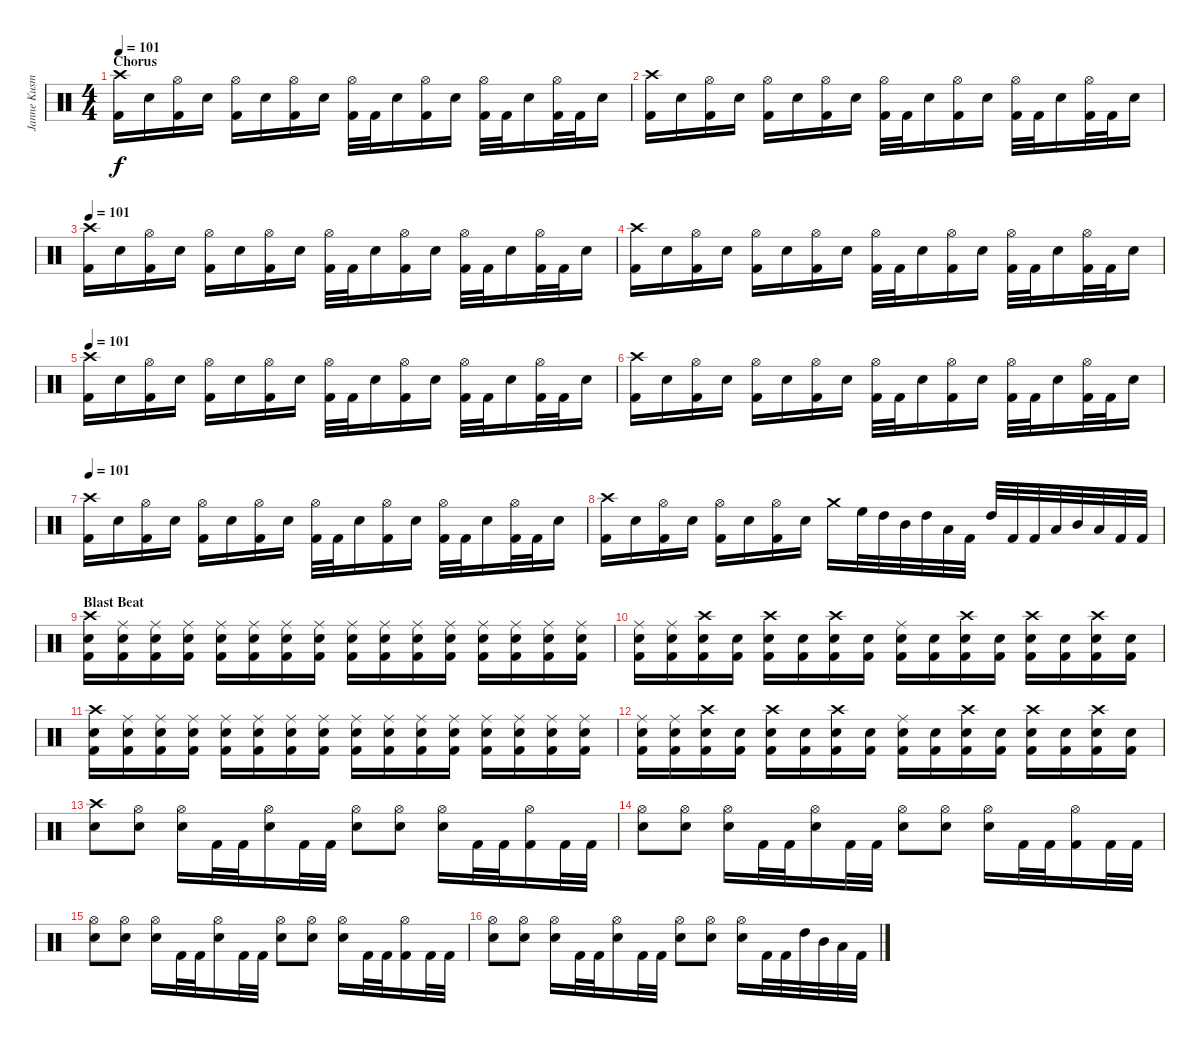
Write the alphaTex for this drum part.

\track ("Janne Kusmin" "Janne Kusm") {instrument percussion}
\staff {score}
\articulation defaults
\ts (4 4)
\section ("" "Chorus")
\tempo 101
\clef neutral
\ks c
("Crash high (hit)" "Kick (hit) 2").16{dy f} "Snare (hit) 2".16 ("Hi-Hat (open)" "Kick (hit) 2").16 "Snare (hit) 2".16 ("Hi-Hat (open)" "Kick (hit) 2").16 "Snare (hit) 2".16 ("Hi-Hat (open)" "Kick (hit) 2").16 "Snare (hit) 2".16 ("Hi-Hat (open)" "Kick (hit) 2").32 "Kick (hit) 2".32 "Snare (hit) 2".16 ("Hi-Hat (open)" "Kick (hit) 2").16 "Snare (hit) 2".16 ("Hi-Hat (open)" "Kick (hit) 2").32 "Kick (hit) 2".32 "Snare (hit) 2".16 ("Hi-Hat (open)" "Kick (hit) 2").32 "Kick (hit) 2".32 "Snare (hit) 2".16 |
("Crash high (hit)" "Kick (hit) 2").16 "Snare (hit) 2".16 ("Hi-Hat (open)" "Kick (hit) 2").16 "Snare (hit) 2".16 ("Hi-Hat (open)" "Kick (hit) 2").16 "Snare (hit) 2".16 ("Hi-Hat (open)" "Kick (hit) 2").16 "Snare (hit) 2".16 ("Hi-Hat (open)" "Kick (hit) 2").32 "Kick (hit) 2".32 "Snare (hit) 2".16 ("Hi-Hat (open)" "Kick (hit) 2").16 "Snare (hit) 2".16 ("Hi-Hat (open)" "Kick (hit) 2").32 "Kick (hit) 2".32 "Snare (hit) 2".16 ("Hi-Hat (open)" "Kick (hit) 2").32 "Kick (hit) 2".32 "Snare (hit) 2".16 |
\tempo 101
("Crash high (hit)" "Kick (hit) 2").16 "Snare (hit) 2".16 ("Hi-Hat (open)" "Kick (hit) 2").16 "Snare (hit) 2".16 ("Hi-Hat (open)" "Kick (hit) 2").16 "Snare (hit) 2".16 ("Hi-Hat (open)" "Kick (hit) 2").16 "Snare (hit) 2".16 ("Hi-Hat (open)" "Kick (hit) 2").32 "Kick (hit) 2".32 "Snare (hit) 2".16 ("Hi-Hat (open)" "Kick (hit) 2").16 "Snare (hit) 2".16 ("Hi-Hat (open)" "Kick (hit) 2").32 "Kick (hit) 2".32 "Snare (hit) 2".16 ("Hi-Hat (open)" "Kick (hit) 2").32 "Kick (hit) 2".32 "Snare (hit) 2".16 |
("Crash high (hit)" "Kick (hit) 2").16 "Snare (hit) 2".16 ("Hi-Hat (open)" "Kick (hit) 2").16 "Snare (hit) 2".16 ("Hi-Hat (open)" "Kick (hit) 2").16 "Snare (hit) 2".16 ("Hi-Hat (open)" "Kick (hit) 2").16 "Snare (hit) 2".16 ("Hi-Hat (open)" "Kick (hit) 2").32 "Kick (hit) 2".32 "Snare (hit) 2".16 ("Hi-Hat (open)" "Kick (hit) 2").16 "Snare (hit) 2".16 ("Hi-Hat (open)" "Kick (hit) 2").32 "Kick (hit) 2".32 "Snare (hit) 2".16 ("Hi-Hat (open)" "Kick (hit) 2").32 "Kick (hit) 2".32 "Snare (hit) 2".16 |
\tempo 101
("Crash high (hit)" "Kick (hit) 2").16 "Snare (hit) 2".16 ("Hi-Hat (open)" "Kick (hit) 2").16 "Snare (hit) 2".16 ("Hi-Hat (open)" "Kick (hit) 2").16 "Snare (hit) 2".16 ("Hi-Hat (open)" "Kick (hit) 2").16 "Snare (hit) 2".16 ("Hi-Hat (open)" "Kick (hit) 2").32 "Kick (hit) 2".32 "Snare (hit) 2".16 ("Hi-Hat (open)" "Kick (hit) 2").16 "Snare (hit) 2".16 ("Hi-Hat (open)" "Kick (hit) 2").32 "Kick (hit) 2".32 "Snare (hit) 2".16 ("Hi-Hat (open)" "Kick (hit) 2").32 "Kick (hit) 2".32 "Snare (hit) 2".16 |
("Crash high (hit)" "Kick (hit) 2").16 "Snare (hit) 2".16 ("Hi-Hat (open)" "Kick (hit) 2").16 "Snare (hit) 2".16 ("Hi-Hat (open)" "Kick (hit) 2").16 "Snare (hit) 2".16 ("Hi-Hat (open)" "Kick (hit) 2").16 "Snare (hit) 2".16 ("Hi-Hat (open)" "Kick (hit) 2").32 "Kick (hit) 2".32 "Snare (hit) 2".16 ("Hi-Hat (open)" "Kick (hit) 2").16 "Snare (hit) 2".16 ("Hi-Hat (open)" "Kick (hit) 2").32 "Kick (hit) 2".32 "Snare (hit) 2".16 ("Hi-Hat (open)" "Kick (hit) 2").32 "Kick (hit) 2".32 "Snare (hit) 2".16 |
\tempo 101
("Crash high (hit)" "Kick (hit) 2").16 "Snare (hit) 2".16 ("Hi-Hat (open)" "Kick (hit) 2").16 "Snare (hit) 2".16 ("Hi-Hat (open)" "Kick (hit) 2").16 "Snare (hit) 2".16 ("Hi-Hat (open)" "Kick (hit) 2").16 "Snare (hit) 2".16 ("Hi-Hat (open)" "Kick (hit) 2").32 "Kick (hit) 2".32 "Snare (hit) 2".16 ("Hi-Hat (open)" "Kick (hit) 2").16 "Snare (hit) 2".16 ("Hi-Hat (open)" "Kick (hit) 2").32 "Kick (hit) 2".32 "Snare (hit) 2".16 ("Hi-Hat (open)" "Kick (hit) 2").32 "Kick (hit) 2".32 "Snare (hit) 2".16 |
("Crash high (hit)" "Kick (hit) 2").16 "Snare (hit) 2".16 ("Hi-Hat (open)" "Kick (hit) 2").16 "Snare (hit) 2".16 ("Hi-Hat (open)" "Kick (hit) 2").16 "Snare (hit) 2".16 ("Hi-Hat (open)" "Kick (hit) 2").16 "Snare (hit) 2".16 "Crash medium (hit)".16 "High Floor Tom (hit)".32 "High Tom (hit)".32 "Mid Tom (hit)".32 "High Tom (hit)".32 "Low Tom (hit)".32 "Kick (hit) 2".32 "High Tom (hit)".32 "Kick (hit) 2".32 "Kick (hit) 2".32 "Low Tom (hit)".32 "Mid Tom (hit)".32 "Low Tom (hit)".32 "Kick (hit) 2".32 "Kick (hit) 2".32 |
\section ("" "Blast Beat")
("Crash high (hit)" "Snare (hit) 2" "Kick (hit) 2").16 ("Ride (middle)" "Snare (hit) 2" "Kick (hit) 2").16 ("Ride (middle)" "Snare (hit) 2" "Kick (hit) 2").16 ("Ride (middle)" "Snare (hit) 2" "Kick (hit) 2").16 ("Ride (middle)" "Snare (hit) 2" "Kick (hit) 2").16 ("Ride (middle)" "Snare (hit) 2" "Kick (hit) 2").16 ("Ride (middle)" "Snare (hit) 2" "Kick (hit) 2").16 ("Ride (middle)" "Snare (hit) 2" "Kick (hit) 2").16 ("Ride (middle)" "Snare (hit) 2" "Kick (hit) 2").16 ("Ride (middle)" "Snare (hit) 2" "Kick (hit) 2").16 ("Ride (middle)" "Snare (hit) 2" "Kick (hit) 2").16 ("Ride (middle)" "Snare (hit) 2" "Kick (hit) 2").16 ("Ride (middle)" "Snare (hit) 2" "Kick (hit) 2").16 ("Ride (middle)" "Snare (hit) 2" "Kick (hit) 2").16 ("Ride (middle)" "Snare (hit) 2" "Kick (hit) 2").16 ("Ride (middle)" "Snare (hit) 2" "Kick (hit) 2").16 |
("Ride (middle)" "Snare (hit) 2" "Kick (hit) 2").16 ("Ride (middle)" "Snare (hit) 2" "Kick (hit) 2").16 ("Crash high (hit)" "Snare (hit) 2" "Kick (hit) 2").16 ("Snare (hit) 2" "Kick (hit) 2").16 ("Crash high (hit)" "Snare (hit) 2" "Kick (hit) 2").16 ("Snare (hit) 2" "Kick (hit) 2").16 ("Crash high (hit)" "Snare (hit) 2" "Kick (hit) 2").16 ("Snare (hit) 2" "Kick (hit) 2").16 ("Ride (middle)" "Snare (hit) 2" "Kick (hit) 2").16 ("Snare (hit) 2" "Kick (hit) 2").16 ("Crash high (hit)" "Snare (hit) 2" "Kick (hit) 2").16 ("Snare (hit) 2" "Kick (hit) 2").16 ("Crash high (hit)" "Snare (hit) 2" "Kick (hit) 2").16 ("Snare (hit) 2" "Kick (hit) 2").16 ("Crash high (hit)" "Snare (hit) 2" "Kick (hit) 2").16 ("Snare (hit) 2" "Kick (hit) 2").16 |
("Crash high (hit)" "Snare (hit) 2" "Kick (hit) 2").16 ("Ride (middle)" "Snare (hit) 2" "Kick (hit) 2").16 ("Ride (middle)" "Snare (hit) 2" "Kick (hit) 2").16 ("Ride (middle)" "Snare (hit) 2" "Kick (hit) 2").16 ("Ride (middle)" "Snare (hit) 2" "Kick (hit) 2").16 ("Ride (middle)" "Snare (hit) 2" "Kick (hit) 2").16 ("Ride (middle)" "Snare (hit) 2" "Kick (hit) 2").16 ("Ride (middle)" "Snare (hit) 2" "Kick (hit) 2").16 ("Ride (middle)" "Snare (hit) 2" "Kick (hit) 2").16 ("Ride (middle)" "Snare (hit) 2" "Kick (hit) 2").16 ("Ride (middle)" "Snare (hit) 2" "Kick (hit) 2").16 ("Ride (middle)" "Snare (hit) 2" "Kick (hit) 2").16 ("Ride (middle)" "Snare (hit) 2" "Kick (hit) 2").16 ("Ride (middle)" "Snare (hit) 2" "Kick (hit) 2").16 ("Ride (middle)" "Snare (hit) 2" "Kick (hit) 2").16 ("Ride (middle)" "Snare (hit) 2" "Kick (hit) 2").16 |
("Ride (middle)" "Snare (hit) 2" "Kick (hit) 2").16 ("Ride (middle)" "Snare (hit) 2" "Kick (hit) 2").16 ("Crash high (hit)" "Snare (hit) 2" "Kick (hit) 2").16 ("Snare (hit) 2" "Kick (hit) 2").16 ("Crash high (hit)" "Snare (hit) 2" "Kick (hit) 2").16 ("Snare (hit) 2" "Kick (hit) 2").16 ("Crash high (hit)" "Snare (hit) 2" "Kick (hit) 2").16 ("Snare (hit) 2" "Kick (hit) 2").16 ("Ride (middle)" "Snare (hit) 2" "Kick (hit) 2").16 ("Snare (hit) 2" "Kick (hit) 2").16 ("Crash high (hit)" "Snare (hit) 2" "Kick (hit) 2").16 ("Snare (hit) 2" "Kick (hit) 2").16 ("Crash high (hit)" "Snare (hit) 2" "Kick (hit) 2").16 ("Snare (hit) 2" "Kick (hit) 2").16 ("Crash high (hit)" "Snare (hit) 2" "Kick (hit) 2").16 ("Snare (hit) 2" "Kick (hit) 2").16 |
("Crash high (hit)" "Snare (hit) 2").8 ("Hi-Hat (open)" "Snare (hit) 2").8 ("Hi-Hat (open)" "Snare (hit) 2").16 "Kick (hit) 2".32 "Kick (hit) 2".32 ("Hi-Hat (open)" "Snare (hit) 2").16 "Kick (hit) 2".32 "Kick (hit) 2".32 ("Hi-Hat (open)" "Snare (hit) 2").8 ("Hi-Hat (open)" "Snare (hit) 2").8 ("Hi-Hat (open)" "Snare (hit) 2").16 "Kick (hit) 2".32 "Kick (hit) 2".32 ("Hi-Hat (open)" "Kick (hit) 2").16 "Kick (hit) 2".32 "Kick (hit) 2".32 |
("Hi-Hat (open)" "Snare (hit) 2").8 ("Hi-Hat (open)" "Snare (hit) 2").8 ("Hi-Hat (open)" "Snare (hit) 2").16 "Kick (hit) 2".32 "Kick (hit) 2".32 ("Hi-Hat (open)" "Snare (hit) 2").16 "Kick (hit) 2".32 "Kick (hit) 2".32 ("Hi-Hat (open)" "Snare (hit) 2").8 ("Hi-Hat (open)" "Snare (hit) 2").8 ("Hi-Hat (open)" "Snare (hit) 2").16 "Kick (hit) 2".32 "Kick (hit) 2".32 ("Hi-Hat (open)" "Kick (hit) 2").16 "Kick (hit) 2".32 "Kick (hit) 2".32 |
("Hi-Hat (open)" "Snare (hit) 2").8 ("Hi-Hat (open)" "Snare (hit) 2").8 ("Hi-Hat (open)" "Snare (hit) 2").16 "Kick (hit) 2".32 "Kick (hit) 2".32 ("Hi-Hat (open)" "Snare (hit) 2").16 "Kick (hit) 2".32 "Kick (hit) 2".32 ("Hi-Hat (open)" "Snare (hit) 2").8 ("Hi-Hat (open)" "Snare (hit) 2").8 ("Hi-Hat (open)" "Snare (hit) 2").16 "Kick (hit) 2".32 "Kick (hit) 2".32 ("Hi-Hat (open)" "Kick (hit) 2").16 "Kick (hit) 2".32 "Kick (hit) 2".32 |
("Hi-Hat (open)" "Snare (hit) 2").8 ("Hi-Hat (open)" "Snare (hit) 2").8 ("Hi-Hat (open)" "Snare (hit) 2").16 "Kick (hit) 2".32 "Kick (hit) 2".32 ("Hi-Hat (open)" "Snare (hit) 2").16 "Kick (hit) 2".32 "Kick (hit) 2".32 ("Hi-Hat (open)" "Snare (hit) 2").8 ("Hi-Hat (open)" "Snare (hit) 2").8 ("Hi-Hat (open)" "Snare (hit) 2").16 "Kick (hit) 2".32 "Kick (hit) 2".32 "High Tom (hit)".32 "Mid Tom (hit)".32 "Low Tom (hit)".32 "Kick (hit) 2".32
